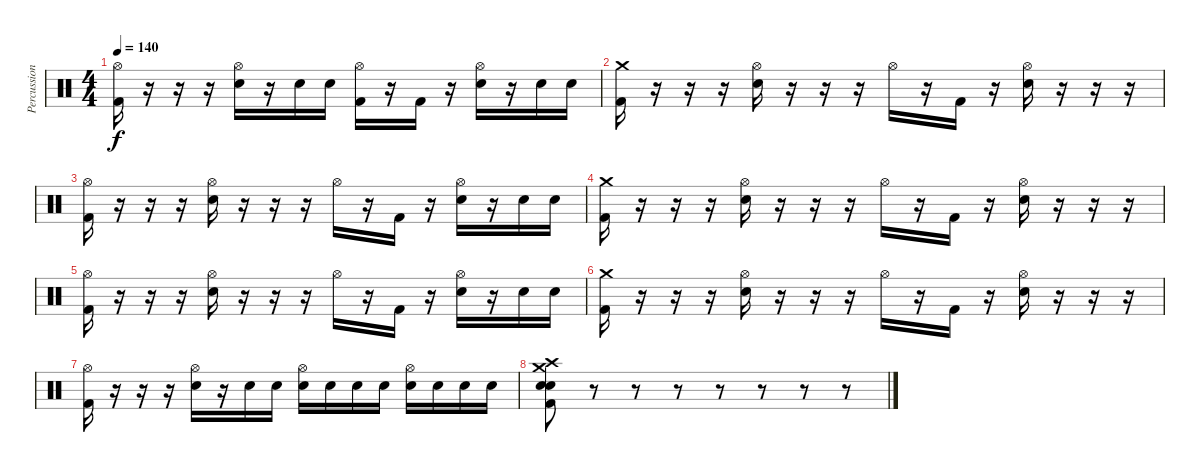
\track ("Percussion" "Percussion") {instrument percussion}
\staff {score}
\articulation defaults
\ts (4 4)
\tempo 140
\clef neutral
\ks c
("Hi-Hat (open)" "Kick (hit) 2").16{dy f} r.16 r.16 r.16 ("Hi-Hat (open)" "Snare (hit) 2").16 r.16 "Snare (hit) 2".16 "Snare (hit) 2".16 ("Hi-Hat (open)" "Kick (hit) 2").16 r.16 "Kick (hit) 2".16 r.16 ("Hi-Hat (open)" "Snare (hit) 2").16 r.16 "Snare (hit) 2".16 "Snare (hit) 2".16 |
("Crash medium (hit)" "Kick (hit) 2").16 r.16 r.16 r.16 ("Hi-Hat (open)" "Snare (hit) 2").16 r.16 r.16 r.16 "Hi-Hat (open)".16 r.16 "Kick (hit) 2".16 r.16 ("Hi-Hat (open)" "Snare (hit) 2").16 r.16 r.16 r.16 |
("Hi-Hat (open)" "Kick (hit) 2").16 r.16 r.16 r.16 ("Hi-Hat (open)" "Snare (hit) 2").16 r.16 r.16 r.16 "Hi-Hat (open)".16 r.16 "Kick (hit) 2".16 r.16 ("Hi-Hat (open)" "Snare (hit) 2").16 r.16 "Snare (hit) 2".16 "Snare (hit) 2".16 |
("Crash medium (hit)" "Kick (hit) 2").16 r.16 r.16 r.16 ("Hi-Hat (open)" "Snare (hit) 2").16 r.16 r.16 r.16 "Hi-Hat (open)".16 r.16 "Kick (hit) 2".16 r.16 ("Hi-Hat (open)" "Snare (hit) 2").16 r.16 r.16 r.16 |
("Hi-Hat (open)" "Kick (hit) 2").16 r.16 r.16 r.16 ("Hi-Hat (open)" "Snare (hit) 2").16 r.16 r.16 r.16 "Hi-Hat (open)".16 r.16 "Kick (hit) 2".16 r.16 ("Hi-Hat (open)" "Snare (hit) 2").16 r.16 "Snare (hit) 2".16 "Snare (hit) 2".16 |
("Crash medium (hit)" "Kick (hit) 2").16 r.16 r.16 r.16 ("Hi-Hat (open)" "Snare (hit) 2").16 r.16 r.16 r.16 "Hi-Hat (open)".16 r.16 "Kick (hit) 2".16 r.16 ("Hi-Hat (open)" "Snare (hit) 2").16 r.16 r.16 r.16 |
("Hi-Hat (open)" "Kick (hit) 2").16 r.16 r.16 r.16 ("Hi-Hat (open)" "Snare (hit) 2").16 r.16 "Snare (hit) 2".16 "Snare (hit) 2".16 ("Hi-Hat (open)" "Snare (hit) 2").16 "Snare (hit) 2".16 "Snare (hit) 2".16 "Snare (hit) 2".16 ("Hi-Hat (open)" "Snare (hit) 2").16 "Snare (hit) 2".16 "Snare (hit) 2".16 "Snare (hit) 2".16 |
("Crash medium (hit)" "Crash high (hit)" "Kick (hit) 2" "Snare (hit) 2" "Snare (hit) 2").8 r.8 r.8 r.8 r.8 r.8 r.8 r.8
